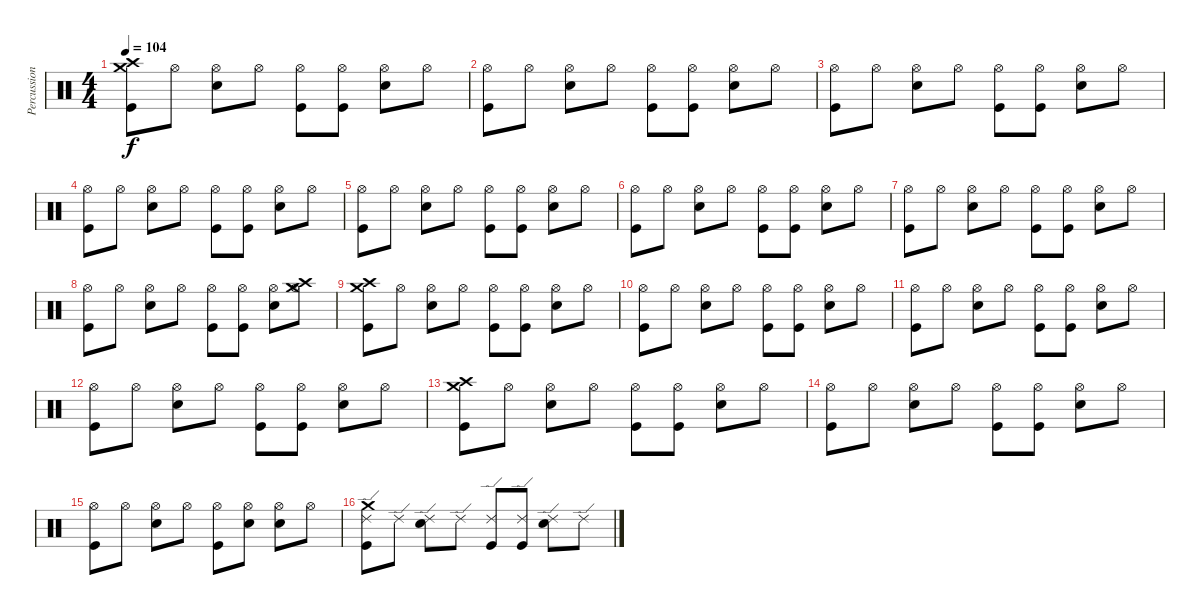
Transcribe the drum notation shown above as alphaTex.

\track ("Percussion" "Percussion") {instrument percussion}
\staff {score}
\articulation defaults
\ts (4 4)
\tempo 104
\clef neutral
\ks c
("Crash high (hit)" "Crash medium (hit)" "Kick (hit)").8{dy f} "Hi-Hat (open)".8 ("Hi-Hat (open)" "Snare (hit) 2").8 "Hi-Hat (open)".8 ("Hi-Hat (open)" "Kick (hit)").8 ("Hi-Hat (open)" "Kick (hit)").8 ("Hi-Hat (open)" "Snare (hit) 2").8 "Hi-Hat (open)".8 |
("Hi-Hat (open)" "Kick (hit)").8 "Hi-Hat (open)".8 ("Hi-Hat (open)" "Snare (hit) 2").8 "Hi-Hat (open)".8 ("Hi-Hat (open)" "Kick (hit)").8 ("Hi-Hat (open)" "Kick (hit)").8 ("Hi-Hat (open)" "Snare (hit) 2").8 "Hi-Hat (open)".8 |
("Hi-Hat (open)" "Kick (hit)").8 "Hi-Hat (open)".8 ("Hi-Hat (open)" "Snare (hit) 2").8 "Hi-Hat (open)".8 ("Hi-Hat (open)" "Kick (hit)").8 ("Hi-Hat (open)" "Kick (hit)").8 ("Hi-Hat (open)" "Snare (hit) 2").8 "Hi-Hat (open)".8 |
("Hi-Hat (open)" "Kick (hit)").8 "Hi-Hat (open)".8 ("Hi-Hat (open)" "Snare (hit) 2").8 "Hi-Hat (open)".8 ("Hi-Hat (open)" "Kick (hit)").8 ("Hi-Hat (open)" "Kick (hit)").8 ("Hi-Hat (open)" "Snare (hit) 2").8 "Hi-Hat (open)".8 |
("Hi-Hat (open)" "Kick (hit)").8 "Hi-Hat (open)".8 ("Hi-Hat (open)" "Snare (hit) 2").8 "Hi-Hat (open)".8 ("Hi-Hat (open)" "Kick (hit)").8 ("Hi-Hat (open)" "Kick (hit)").8 ("Hi-Hat (open)" "Snare (hit) 2").8 "Hi-Hat (open)".8 |
("Hi-Hat (open)" "Kick (hit)").8 "Hi-Hat (open)".8 ("Hi-Hat (open)" "Snare (hit) 2").8 "Hi-Hat (open)".8 ("Hi-Hat (open)" "Kick (hit)").8 ("Hi-Hat (open)" "Kick (hit)").8 ("Hi-Hat (open)" "Snare (hit) 2").8 "Hi-Hat (open)".8 |
("Hi-Hat (open)" "Kick (hit)").8 "Hi-Hat (open)".8 ("Hi-Hat (open)" "Snare (hit) 2").8 "Hi-Hat (open)".8 ("Hi-Hat (open)" "Kick (hit)").8 ("Hi-Hat (open)" "Kick (hit)").8 ("Hi-Hat (open)" "Snare (hit) 2").8 "Hi-Hat (open)".8 |
("Hi-Hat (open)" "Kick (hit)").8 "Hi-Hat (open)".8 ("Hi-Hat (open)" "Snare (hit) 2").8 "Hi-Hat (open)".8 ("Hi-Hat (open)" "Kick (hit)").8 ("Hi-Hat (open)" "Kick (hit)").8 ("Hi-Hat (open)" "Snare (hit) 2").8 ("Hi-Hat (open)" "Crash medium (hit)" "Crash high (hit)").8 |
("Crash high (hit)" "Crash medium (hit)" "Kick (hit)").8 "Hi-Hat (open)".8 ("Hi-Hat (open)" "Snare (hit) 2").8 "Hi-Hat (open)".8 ("Hi-Hat (open)" "Kick (hit)").8 ("Hi-Hat (open)" "Kick (hit)").8 ("Hi-Hat (open)" "Snare (hit) 2").8 "Hi-Hat (open)".8 |
("Hi-Hat (open)" "Kick (hit)").8 "Hi-Hat (open)".8 ("Hi-Hat (open)" "Snare (hit) 2").8 "Hi-Hat (open)".8 ("Hi-Hat (open)" "Kick (hit)").8 ("Hi-Hat (open)" "Kick (hit)").8 ("Hi-Hat (open)" "Snare (hit) 2").8 "Hi-Hat (open)".8 |
("Hi-Hat (open)" "Kick (hit)").8 "Hi-Hat (open)".8 ("Hi-Hat (open)" "Snare (hit) 2").8 "Hi-Hat (open)".8 ("Hi-Hat (open)" "Kick (hit)").8 ("Hi-Hat (open)" "Kick (hit)").8 ("Hi-Hat (open)" "Snare (hit) 2").8 "Hi-Hat (open)".8 |
("Hi-Hat (open)" "Kick (hit)").8 "Hi-Hat (open)".8 ("Hi-Hat (open)" "Snare (hit) 2").8 "Hi-Hat (open)".8 ("Hi-Hat (open)" "Kick (hit)").8 ("Hi-Hat (open)" "Kick (hit)").8 ("Hi-Hat (open)" "Snare (hit) 2").8 "Hi-Hat (open)".8 |
("Crash high (hit)" "Crash medium (hit)" "Kick (hit)").8 "Hi-Hat (open)".8 ("Hi-Hat (open)" "Snare (hit) 2").8 "Hi-Hat (open)".8 ("Hi-Hat (open)" "Kick (hit)").8 ("Hi-Hat (open)" "Kick (hit)").8 ("Hi-Hat (open)" "Snare (hit) 2").8 "Hi-Hat (open)".8 |
("Hi-Hat (open)" "Kick (hit)").8 "Hi-Hat (open)".8 ("Hi-Hat (open)" "Snare (hit) 2").8 "Hi-Hat (open)".8 ("Hi-Hat (open)" "Kick (hit)").8 ("Hi-Hat (open)" "Kick (hit)").8 ("Hi-Hat (open)" "Snare (hit) 2").8 "Hi-Hat (open)".8 |
("Hi-Hat (open)" "Kick (hit)").8 "Hi-Hat (open)".8 ("Hi-Hat (open)" "Snare (hit) 2").8 "Hi-Hat (open)".8 ("Hi-Hat (open)" "Kick (hit)").8 ("Hi-Hat (open)" "Snare (hit) 2").8 ("Hi-Hat (open)" "Snare (hit) 2").8 "Hi-Hat (open)".8 |
("Ride (edge) 2" "Crash medium (hit)" "Kick (hit)").8 "Ride (edge) 2".8 ("Ride (edge) 2" "Snare (hit) 2").8 "Ride (edge) 2".8 ("Ride (edge) 2" "Kick (hit)").8 ("Ride (edge) 2" "Kick (hit)").8 ("Ride (edge) 2" "Snare (hit) 2").8 "Ride (edge) 2".8
